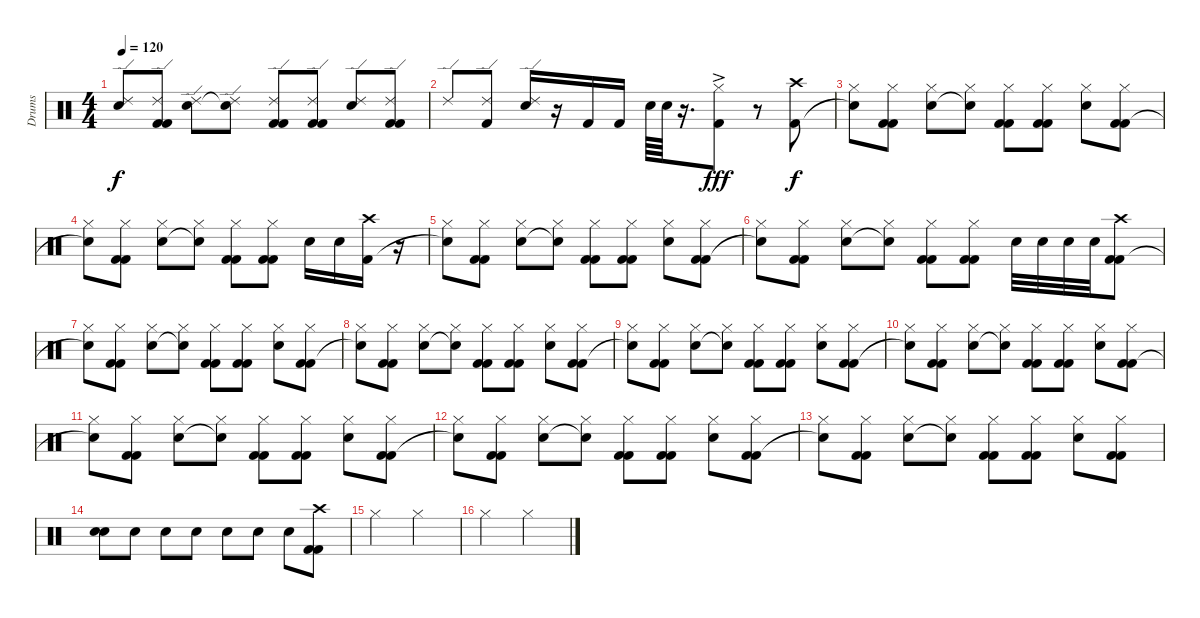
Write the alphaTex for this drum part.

\track ("Drums" "Drums") {instrument percussion}
\staff {score}
\articulation defaults
\ts (4 4)
\tempo 120
\clef neutral
\ks c
("Ride (edge) 2" "Snare (hit)"{t}).8{dy f} ("Ride (edge) 2" "Kick (hit) 2" "Kick (hit) 2").8 ("Ride (edge) 2" "Electric Snare (hit)").8 ("Ride (edge) 2" "Electric Snare (hit)"{t}).8 ("Ride (edge) 2" "Kick (hit) 2" "Kick (hit) 2").8 ("Ride (edge) 2" "Kick (hit) 2" "Kick (hit) 2").8 ("Ride (edge) 2" "Electric Snare (hit)").8 ("Ride (edge) 2" "Kick (hit) 2" "Kick (hit) 2").8 |
"Ride (edge) 2".8 ("Ride (edge) 2" "Kick (hit) 2").8 ("Ride (edge) 2" "Snare (hit) 2").16 r.16 "Kick (hit) 2".16 "Kick (hit) 2".16 "Snare (hit) 2".64 "Snare (hit) 2".64 r.16{d} ("Hi-Hat (closed)"{ac} "Kick (hit) 2"{ac}).8{dy fff} r.8 ("Crash high (hit)" "Kick (hit) 2").8{dy f} |
("Hi-Hat (closed)" "Snare (hit)"{t}).8 ("Hi-Hat (closed)" "Kick (hit) 2" "Kick (hit) 2").8 ("Hi-Hat (closed)" "Electric Snare (hit)").8 ("Hi-Hat (closed)" "Electric Snare (hit)"{t}).8 ("Hi-Hat (closed)" "Kick (hit) 2" "Kick (hit) 2").8 ("Hi-Hat (closed)" "Kick (hit) 2" "Kick (hit) 2").8 ("Hi-Hat (closed)" "Electric Snare (hit)").8 ("Hi-Hat (closed)" "Kick (hit) 2" "Kick (hit) 2").8 |
("Hi-Hat (closed)" "Snare (hit)"{t}).8 ("Hi-Hat (closed)" "Kick (hit) 2" "Kick (hit) 2").8 ("Hi-Hat (closed)" "Electric Snare (hit)").8 ("Hi-Hat (closed)" "Electric Snare (hit)"{t}).8 ("Hi-Hat (closed)" "Kick (hit) 2" "Kick (hit) 2").8 ("Hi-Hat (closed)" "Kick (hit) 2" "Kick (hit) 2").8 "Electric Snare (hit)".16 "Electric Snare (hit)".16 ("Crash high (hit)" "Kick (hit) 2").16 r.16 |
("Hi-Hat (closed)" "Snare (hit)"{t}).8 ("Hi-Hat (closed)" "Kick (hit) 2" "Kick (hit) 2").8 ("Hi-Hat (closed)" "Electric Snare (hit)").8 ("Hi-Hat (closed)" "Electric Snare (hit)"{t}).8 ("Hi-Hat (closed)" "Kick (hit) 2" "Kick (hit) 2").8 ("Hi-Hat (closed)" "Kick (hit) 2" "Kick (hit) 2").8 ("Hi-Hat (closed)" "Electric Snare (hit)").8 ("Hi-Hat (closed)" "Kick (hit) 2" "Kick (hit) 2").8 |
("Hi-Hat (closed)" "Snare (hit)"{t}).8 ("Hi-Hat (closed)" "Kick (hit) 2" "Kick (hit) 2").8 ("Hi-Hat (closed)" "Electric Snare (hit)").8 ("Hi-Hat (closed)" "Electric Snare (hit)"{t}).8 ("Hi-Hat (closed)" "Kick (hit) 2" "Kick (hit) 2").8 ("Hi-Hat (closed)" "Kick (hit) 2" "Kick (hit) 2").8 "Snare (hit) 2".32 "Snare (hit) 2".32 "Snare (hit) 2".32 "Snare (hit) 2".32 ("Crash high (hit)" "Kick (hit) 2" "Kick (hit) 2").8 |
("Hi-Hat (closed)" "Snare (hit)"{t}).8 ("Hi-Hat (closed)" "Kick (hit) 2" "Kick (hit) 2").8 ("Hi-Hat (closed)" "Electric Snare (hit)").8 ("Hi-Hat (closed)" "Electric Snare (hit)"{t}).8 ("Hi-Hat (closed)" "Kick (hit) 2" "Kick (hit) 2").8 ("Hi-Hat (closed)" "Kick (hit) 2" "Kick (hit) 2").8 ("Hi-Hat (closed)" "Electric Snare (hit)").8 ("Hi-Hat (closed)" "Kick (hit) 2" "Kick (hit) 2").8 |
("Hi-Hat (closed)" "Snare (hit)"{t}).8 ("Hi-Hat (closed)" "Kick (hit) 2" "Kick (hit) 2").8 ("Hi-Hat (closed)" "Electric Snare (hit)").8 ("Hi-Hat (closed)" "Electric Snare (hit)"{t}).8 ("Hi-Hat (closed)" "Kick (hit) 2" "Kick (hit) 2").8 ("Hi-Hat (closed)" "Kick (hit) 2" "Kick (hit) 2").8 ("Hi-Hat (closed)" "Electric Snare (hit)").8 ("Hi-Hat (closed)" "Kick (hit) 2" "Kick (hit) 2").8 |
("Hi-Hat (closed)" "Snare (hit)"{t}).8 ("Hi-Hat (closed)" "Kick (hit) 2" "Kick (hit) 2").8 ("Hi-Hat (closed)" "Electric Snare (hit)").8 ("Hi-Hat (closed)" "Electric Snare (hit)"{t}).8 ("Hi-Hat (closed)" "Kick (hit) 2" "Kick (hit) 2").8 ("Hi-Hat (closed)" "Kick (hit) 2" "Kick (hit) 2").8 ("Hi-Hat (closed)" "Electric Snare (hit)").8 ("Hi-Hat (closed)" "Kick (hit) 2" "Kick (hit) 2").8 |
("Hi-Hat (closed)" "Snare (hit)"{t}).8 ("Hi-Hat (closed)" "Kick (hit) 2" "Kick (hit) 2").8 ("Hi-Hat (closed)" "Electric Snare (hit)").8 ("Hi-Hat (closed)" "Electric Snare (hit)"{t}).8 ("Hi-Hat (closed)" "Kick (hit) 2" "Kick (hit) 2").8 ("Hi-Hat (closed)" "Kick (hit) 2" "Kick (hit) 2").8 ("Hi-Hat (closed)" "Electric Snare (hit)").8 ("Hi-Hat (closed)" "Kick (hit) 2" "Kick (hit) 2").8 |
("Hi-Hat (closed)" "Snare (hit)"{t}).8 ("Hi-Hat (closed)" "Kick (hit) 2" "Kick (hit) 2").8 ("Hi-Hat (closed)" "Electric Snare (hit)").8 ("Hi-Hat (closed)" "Electric Snare (hit)"{t}).8 ("Hi-Hat (closed)" "Kick (hit) 2" "Kick (hit) 2").8 ("Hi-Hat (closed)" "Kick (hit) 2" "Kick (hit) 2").8 ("Hi-Hat (closed)" "Electric Snare (hit)").8 ("Hi-Hat (closed)" "Kick (hit) 2" "Kick (hit) 2").8 |
("Hi-Hat (closed)" "Snare (hit)"{t}).8 ("Hi-Hat (closed)" "Kick (hit) 2" "Kick (hit) 2").8 ("Hi-Hat (closed)" "Electric Snare (hit)").8 ("Hi-Hat (closed)" "Electric Snare (hit)"{t}).8 ("Hi-Hat (closed)" "Kick (hit) 2" "Kick (hit) 2").8 ("Hi-Hat (closed)" "Kick (hit) 2" "Kick (hit) 2").8 ("Hi-Hat (closed)" "Electric Snare (hit)").8 ("Hi-Hat (closed)" "Kick (hit) 2" "Kick (hit) 2").8 |
("Hi-Hat (closed)" "Snare (hit)"{t}).8 ("Hi-Hat (closed)" "Kick (hit) 2" "Kick (hit) 2").8 ("Hi-Hat (closed)" "Electric Snare (hit)").8 ("Hi-Hat (closed)" "Electric Snare (hit)"{t}).8 ("Hi-Hat (closed)" "Kick (hit) 2" "Kick (hit) 2").8 ("Hi-Hat (closed)" "Kick (hit) 2" "Kick (hit) 2").8 ("Hi-Hat (closed)" "Electric Snare (hit)").8 ("Hi-Hat (closed)" "Kick (hit) 2" "Kick (hit) 2").8 |
("Electric Snare (hit)" "Electric Snare (hit)").8 "Electric Snare (hit)".8 "Electric Snare (hit)".8 "Electric Snare (hit)".8 "Electric Snare (hit)".8 "Electric Snare (hit)".8 "Electric Snare (hit)".8 ("Crash high (hit)" "Kick (hit) 2" "Kick (hit) 2").8 |
"Hi-Hat (closed)".2 "Hi-Hat (closed)".2 |
"Hi-Hat (closed)".2 "Hi-Hat (closed)".2
